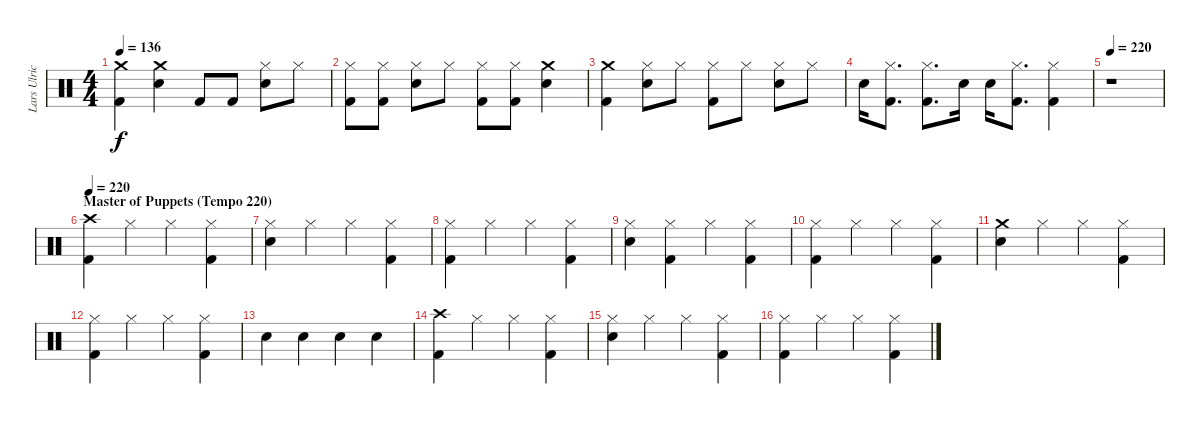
\track ("Lars Ulrich (Drums)" "Lars Ulric") {instrument percussion}
\staff {score}
\articulation defaults
\ts (4 4)
\tempo 136
\clef neutral
\ks c
("Kick (hit) 2" "Crash medium (hit)").4{dy f} ("Snare (hit) 2" "Crash medium (hit)").4 "Kick (hit) 2".8 "Kick (hit) 2".8 ("Hi-Hat (closed)" "Snare (hit) 2").8 "Hi-Hat (closed)".8 |
("Hi-Hat (closed)" "Kick (hit) 2").8 ("Hi-Hat (closed)" "Kick (hit) 2").8 ("Snare (hit) 2" "Hi-Hat (closed)").8 "Hi-Hat (closed)".8 ("Kick (hit) 2" "Hi-Hat (closed)").8 ("Kick (hit) 2" "Hi-Hat (closed)").8 ("Crash medium (hit)" "Snare (hit) 2").4 |
("Kick (hit) 2" "Crash medium (hit)").4 ("Hi-Hat (closed)" "Snare (hit) 2").8 "Hi-Hat (closed)".8 ("Hi-Hat (closed)" "Kick (hit) 2").8 "Hi-Hat (closed)".8 ("Snare (hit) 2" "Hi-Hat (closed)").8 "Hi-Hat (closed)".8 |
"Snare (hit) 2".16 ("Kick (hit) 2" "Hi-Hat (closed)").8{d} ("Kick (hit) 2" "Hi-Hat (closed)").8{d} "Snare (hit) 2".16 "Snare (hit) 2".16 ("Kick (hit) 2" "Hi-Hat (closed)").8{d} ("Hi-Hat (closed)" "Kick (hit) 2").4 |
\tempo 220
r.1 |
\section ("" "Master of Puppets (Tempo 220)")
\tempo 220
("Crash high (hit)" "Kick (hit) 2").4 "Hi-Hat (closed)".4 "Hi-Hat (closed)".4 ("Hi-Hat (closed)" "Kick (hit) 2").4 |
("Hi-Hat (closed)" "Snare (hit) 2").4 "Hi-Hat (closed)".4 "Hi-Hat (closed)".4 ("Hi-Hat (closed)" "Kick (hit) 2").4 |
("Hi-Hat (closed)" "Kick (hit) 2").4 "Hi-Hat (closed)".4 "Hi-Hat (closed)".4 ("Hi-Hat (closed)" "Kick (hit) 2").4 |
("Hi-Hat (closed)" "Snare (hit) 2").4 ("Hi-Hat (closed)" "Kick (hit) 2").4 "Hi-Hat (closed)".4 ("Hi-Hat (closed)" "Kick (hit) 2").4 |
("Hi-Hat (closed)" "Kick (hit) 2").4 "Hi-Hat (closed)".4 "Hi-Hat (closed)".4 ("Hi-Hat (closed)" "Kick (hit) 2").4 |
("Crash medium (hit)" "Snare (hit) 2").4 "Hi-Hat (closed)".4 "Hi-Hat (closed)".4 ("Hi-Hat (closed)" "Kick (hit) 2").4 |
("Hi-Hat (closed)" "Kick (hit) 2").4 "Hi-Hat (closed)".4 "Hi-Hat (closed)".4 ("Hi-Hat (closed)" "Kick (hit) 2").4 |
"Snare (hit) 2".4 "Snare (hit) 2".4 "Snare (hit) 2".4 "Snare (hit) 2".4 |
("Crash high (hit)" "Kick (hit) 2").4 "Hi-Hat (closed)".4 "Hi-Hat (closed)".4 ("Hi-Hat (closed)" "Kick (hit) 2").4 |
("Hi-Hat (closed)" "Snare (hit) 2").4 "Hi-Hat (closed)".4 "Hi-Hat (closed)".4 ("Hi-Hat (closed)" "Kick (hit) 2").4 |
("Hi-Hat (closed)" "Kick (hit) 2").4 "Hi-Hat (closed)".4 "Hi-Hat (closed)".4 ("Hi-Hat (closed)" "Kick (hit) 2").4
